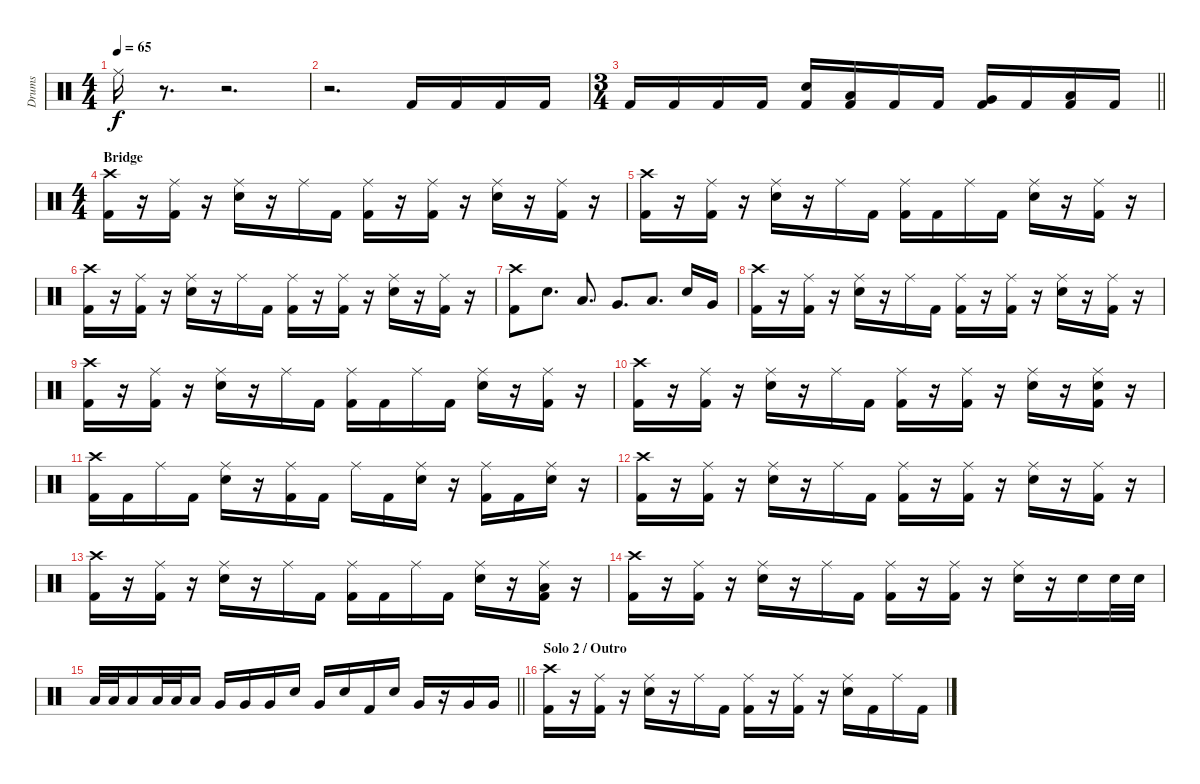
\track ("Drums" "Drums") {instrument percussion}
\staff {score}
\articulation defaults
\ts (4 4)
\tempo 65
\clef neutral
\ks c "Ride (middle)".16{dy f}
r.8{d} r.2{d} |
r.2{d} "Kick (hit) 2".16 "Kick (hit) 2".16 "Kick (hit) 2".16 "Kick (hit) 2".16 |
\ts (3 4)
\barLineRight lightlight "Kick (hit) 2".16 "Kick (hit) 2".16 "Kick (hit) 2".16 "Kick (hit) 2".16
("Snare (hit) 2" "Kick (hit) 2").16 ("Low Tom (hit)" "Kick (hit) 2").16 "Kick (hit) 2".16 "Kick (hit) 2".16 ("Very Low Tom (hit)" "Kick (hit) 2").16 "Kick (hit) 2".16 ("Low Floor Tom (hit)" "Kick (hit) 2").16 "Kick (hit) 2".16 |
\ts (4 4)
\section ("" "Bridge")
("Crash high (hit)" "Kick (hit) 2").16 r.16 ("Ride (middle)" "Kick (hit) 2").16 r.16 ("Ride (middle)" "Snare (hit) 2").16 r.16 "Ride (middle)".16 "Kick (hit) 2".16 ("Ride (middle)" "Kick (hit) 2").16 r.16 ("Ride (middle)" "Kick (hit) 2").16 r.16 ("Ride (middle)" "Snare (hit) 2").16 r.16 ("Ride (middle)" "Kick (hit) 2").16 r.16 |
("Crash high (hit)" "Kick (hit) 2").16 r.16 ("Ride (middle)" "Kick (hit) 2").16 r.16 ("Ride (middle)" "Snare (hit) 2").16 r.16 "Ride (middle)".16 "Kick (hit) 2".16 ("Ride (middle)" "Kick (hit) 2").16 "Kick (hit) 2".16 "Ride (middle)".16 "Kick (hit) 2".16 ("Ride (middle)" "Snare (hit) 2").16 r.16 ("Ride (middle)" "Kick (hit) 2").16 r.16 |
("Crash high (hit)" "Kick (hit) 2").16 r.16 ("Ride (middle)" "Kick (hit) 2").16 r.16 ("Ride (middle)" "Snare (hit) 2").16 r.16 "Ride (middle)".16 "Kick (hit) 2".16 ("Ride (middle)" "Kick (hit) 2").16 r.16 ("Ride (middle)" "Kick (hit) 2").16 r.16 ("Ride (middle)" "Snare (hit) 2").16 r.16 ("Ride (middle)" "Kick (hit) 2").16 r.16 |
("Crash high (hit)" "Kick (hit) 2").8 "Snare (hit) 2".8{d} "Low Tom (hit)".8{d} "Very Low Tom (hit)".8{d} "Low Floor Tom (hit)".8{d} "Snare (hit) 2".16 "Very Low Tom (hit)".16 |
("Crash high (hit)" "Kick (hit) 2").16 r.16 ("Ride (middle)" "Kick (hit) 2").16 r.16 ("Ride (middle)" "Snare (hit) 2").16 r.16 "Ride (middle)".16 "Kick (hit) 2".16 ("Ride (middle)" "Kick (hit) 2").16 r.16 ("Ride (middle)" "Kick (hit) 2").16 r.16 ("Ride (middle)" "Snare (hit) 2").16 r.16 ("Ride (middle)" "Kick (hit) 2").16 r.16 |
("Crash high (hit)" "Kick (hit) 2").16 r.16 ("Ride (middle)" "Kick (hit) 2").16 r.16 ("Ride (middle)" "Snare (hit) 2").16 r.16 "Ride (middle)".16 "Kick (hit) 2".16 ("Ride (middle)" "Kick (hit) 2").16 "Kick (hit) 2".16 "Ride (middle)".16 "Kick (hit) 2".16 ("Ride (middle)" "Snare (hit) 2").16 r.16 ("Ride (middle)" "Kick (hit) 2").16 r.16 |
("Crash high (hit)" "Kick (hit) 2").16 r.16 ("Ride (middle)" "Kick (hit) 2").16 r.16 ("Ride (middle)" "Snare (hit) 2").16 r.16 "Ride (middle)".16 "Kick (hit) 2".16 ("Ride (middle)" "Kick (hit) 2").16 r.16 ("Ride (middle)" "Kick (hit) 2").16 r.16 ("Ride (middle)" "Snare (hit) 2").16 r.16 ("Ride (middle)" "Snare (hit) 2" "Kick (hit) 2").16 r.16 |
("Crash high (hit)" "Kick (hit) 2").16 "Kick (hit) 2".16 "Ride (middle)".16 "Kick (hit) 2".16 ("Ride (middle)" "Snare (hit) 2").16 r.16 ("Ride (middle)" "Kick (hit) 2").16 "Kick (hit) 2".16 "Ride (middle)".16 "Kick (hit) 2".16 ("Ride (middle)" "Snare (hit) 2").16 r.16 ("Ride (middle)" "Kick (hit) 2").16 "Kick (hit) 2".16 ("Ride (middle)" "Snare (hit) 2").16 r.16 |
("Crash high (hit)" "Kick (hit) 2").16 r.16 ("Ride (middle)" "Kick (hit) 2").16 r.16 ("Ride (middle)" "Snare (hit) 2").16 r.16 "Ride (middle)".16 "Kick (hit) 2".16 ("Ride (middle)" "Kick (hit) 2").16 r.16 ("Ride (middle)" "Kick (hit) 2").16 r.16 ("Ride (middle)" "Snare (hit) 2").16 r.16 ("Ride (middle)" "Kick (hit) 2").16 r.16 |
("Crash high (hit)" "Kick (hit) 2").16 r.16 ("Ride (middle)" "Kick (hit) 2").16 r.16 ("Ride (middle)" "Snare (hit) 2").16 r.16 "Ride (middle)".16 "Kick (hit) 2".16 ("Ride (middle)" "Kick (hit) 2").16 "Kick (hit) 2".16 "Ride (middle)".16 "Kick (hit) 2".16 ("Ride (middle)" "Snare (hit) 2").16 r.16 ("Ride (middle)" "Low Tom (hit)" "Kick (hit) 2").16 r.16 |
("Crash high (hit)" "Kick (hit) 2").16 r.16 ("Ride (middle)" "Kick (hit) 2").16 r.16 ("Ride (middle)" "Snare (hit) 2").16 r.16 "Ride (middle)".16 "Kick (hit) 2".16 ("Ride (middle)" "Kick (hit) 2").16 r.16 ("Ride (middle)" "Kick (hit) 2").16 r.16 ("Ride (middle)" "Snare (hit) 2").16 r.16 "Snare (hit) 2".16 "Snare (hit) 2".32 "Snare (hit) 2".32 |
\barLineRight lightlight "Low Tom (hit)".32 "Low Tom (hit)".32 "Low Tom (hit)".16 "Low Tom (hit)".32 "Low Tom (hit)".32 "Low Tom (hit)".16 "Very Low Tom (hit)".16 "Very Low Tom (hit)".16 "Very Low Tom (hit)".16 "Snare (hit) 2".16 "Very Low Tom (hit)".16 "Snare (hit) 2".16 "Kick (hit) 2".16 "Snare (hit) 2".16 "Very Low Tom (hit)".16
r.16 "Very Low Tom (hit)".16 "Very Low Tom (hit)".16 |
\section ("" "Solo 2 / Outro")
("Crash high (hit)" "Kick (hit) 2").16 r.16 ("Ride (middle)" "Kick (hit) 2").16 r.16 ("Ride (middle)" "Snare (hit) 2").16 r.16 "Ride (middle)".16 "Kick (hit) 2".16 ("Ride (middle)" "Kick (hit) 2").16 r.16 ("Ride (middle)" "Kick (hit) 2").16 r.16 ("Ride (middle)" "Snare (hit) 2").16 "Kick (hit) 2".16 "Ride (middle)".16 "Kick (hit) 2".16
